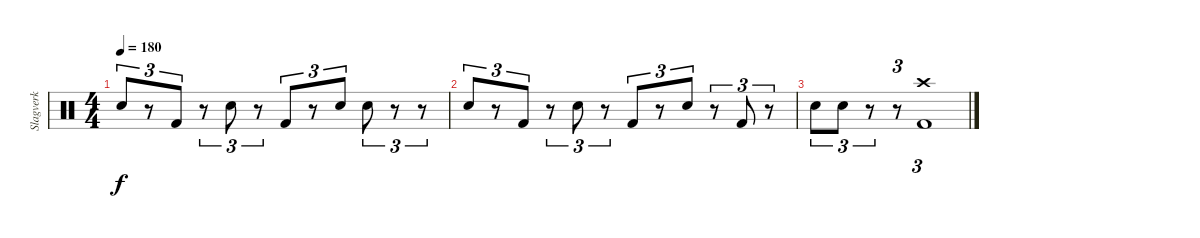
\track ("Slagverk" "Slagverk") {instrument percussion}
\staff {score}
\articulation defaults
\ts (4 4)
\tempo 180
\clef neutral
\ks c "Electric Snare (hit)".8{tu (3 2) dy f}
r.8{tu (3 2)} "Kick (hit) 2".8{tu (3 2)} r.8{tu (3 2)} "Electric Snare (hit)".8{tu (3 2)} r.8{tu (3 2)} "Kick (hit) 2".8{tu (3 2)} r.8{tu (3 2)} "Electric Snare (hit)".8{tu (3 2)} "Electric Snare (hit)".8{tu (3 2)} r.8{tu (3 2)} r.8{tu (3 2)} |
"Electric Snare (hit)".8{tu (3 2)} r.8{tu (3 2)} "Kick (hit) 2".8{tu (3 2)} r.8{tu (3 2)} "Electric Snare (hit)".8{tu (3 2)} r.8{tu (3 2)} "Kick (hit) 2".8{tu (3 2)} r.8{tu (3 2)} "Electric Snare (hit)".8{tu (3 2)} r.8{tu (3 2)} "Kick (hit) 2".8{tu (3 2)} r.8{tu (3 2)} |
"Electric Snare (hit)".8{tu (3 2)} "Electric Snare (hit)".8{tu (3 2)} r.8{tu (3 2)} r.8{tu (3 2)} ("Crash high (hit)" "Kick (hit) 2").1{tu (3 2)}
